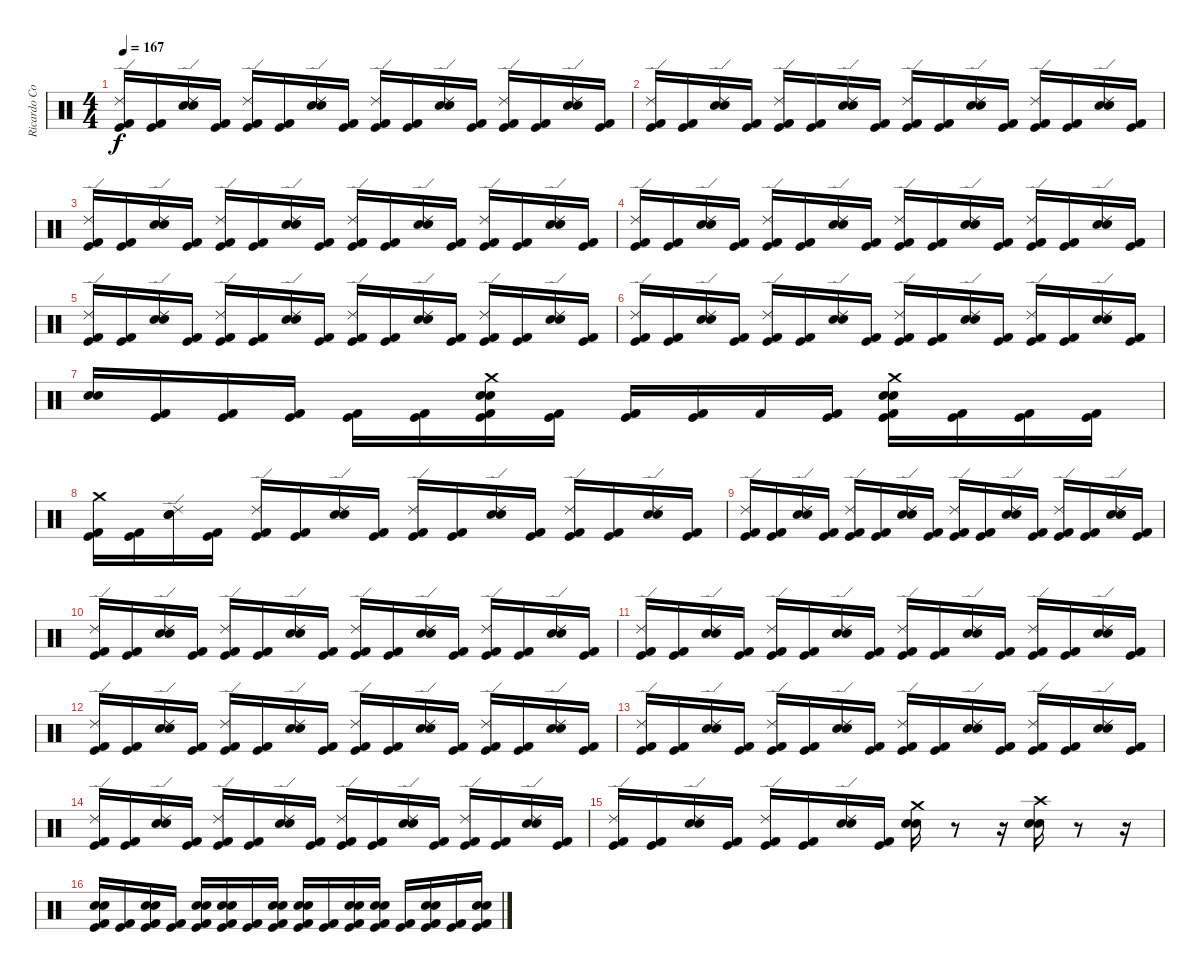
\track ("Ricardo Confessori" "Ricardo Co") {instrument percussion}
\staff {score}
\articulation defaults
\ts (4 4)
\tempo 167
\clef neutral
\ks c
("Ride (edge) 2" "Kick (hit) 2" "Kick (hit)").16{dy f} ("Kick (hit) 2" "Kick (hit)").16 ("Electric Snare (hit)" "Snare (hit) 2" "Ride (edge) 2").16 ("Kick (hit) 2" "Kick (hit)").16 ("Ride (edge) 2" "Kick (hit) 2" "Kick (hit)").16 ("Kick (hit) 2" "Kick (hit)").16 ("Electric Snare (hit)" "Snare (hit) 2" "Ride (edge) 2").16 ("Kick (hit) 2" "Kick (hit)").16 ("Ride (edge) 2" "Kick (hit) 2" "Kick (hit)").16 ("Kick (hit) 2" "Kick (hit)").16 ("Electric Snare (hit)" "Snare (hit) 2" "Ride (edge) 2").16 ("Kick (hit) 2" "Kick (hit)").16 ("Ride (edge) 2" "Kick (hit) 2" "Kick (hit)").16 ("Kick (hit) 2" "Kick (hit)").16 ("Electric Snare (hit)" "Snare (hit) 2" "Ride (edge) 2").16 ("Kick (hit) 2" "Kick (hit)").16 |
("Ride (edge) 2" "Kick (hit) 2" "Kick (hit)").16 ("Kick (hit) 2" "Kick (hit)").16 ("Electric Snare (hit)" "Snare (hit) 2" "Ride (edge) 2").16 ("Kick (hit) 2" "Kick (hit)").16 ("Ride (edge) 2" "Kick (hit) 2" "Kick (hit)").16 ("Kick (hit) 2" "Kick (hit)").16 ("Electric Snare (hit)" "Snare (hit) 2" "Ride (edge) 2").16 ("Kick (hit) 2" "Kick (hit)").16 ("Ride (edge) 2" "Kick (hit) 2" "Kick (hit)").16 ("Kick (hit) 2" "Kick (hit)").16 ("Electric Snare (hit)" "Snare (hit) 2" "Ride (edge) 2").16 ("Kick (hit) 2" "Kick (hit)").16 ("Ride (edge) 2" "Kick (hit) 2" "Kick (hit)").16 ("Kick (hit) 2" "Kick (hit)").16 ("Electric Snare (hit)" "Snare (hit) 2" "Ride (edge) 2").16 ("Kick (hit) 2" "Kick (hit)").16 |
("Ride (edge) 2" "Kick (hit) 2" "Kick (hit)").16 ("Kick (hit) 2" "Kick (hit)").16 ("Electric Snare (hit)" "Snare (hit) 2" "Ride (edge) 2").16 ("Kick (hit) 2" "Kick (hit)").16 ("Ride (edge) 2" "Kick (hit) 2" "Kick (hit)").16 ("Kick (hit) 2" "Kick (hit)").16 ("Electric Snare (hit)" "Snare (hit) 2" "Ride (edge) 2").16 ("Kick (hit) 2" "Kick (hit)").16 ("Ride (edge) 2" "Kick (hit) 2" "Kick (hit)").16 ("Kick (hit) 2" "Kick (hit)").16 ("Electric Snare (hit)" "Snare (hit) 2" "Ride (edge) 2").16 ("Kick (hit) 2" "Kick (hit)").16 ("Ride (edge) 2" "Kick (hit) 2" "Kick (hit)").16 ("Kick (hit) 2" "Kick (hit)").16 ("Electric Snare (hit)" "Snare (hit) 2" "Ride (edge) 2").16 ("Kick (hit) 2" "Kick (hit)").16 |
("Ride (edge) 2" "Kick (hit) 2" "Kick (hit)").16 ("Kick (hit) 2" "Kick (hit)").16 ("Electric Snare (hit)" "Snare (hit) 2" "Ride (edge) 2").16 ("Kick (hit) 2" "Kick (hit)").16 ("Ride (edge) 2" "Kick (hit) 2" "Kick (hit)").16 ("Kick (hit) 2" "Kick (hit)").16 ("Electric Snare (hit)" "Snare (hit) 2" "Ride (edge) 2").16 ("Kick (hit) 2" "Kick (hit)").16 ("Ride (edge) 2" "Kick (hit) 2" "Kick (hit)").16 ("Kick (hit) 2" "Kick (hit)").16 ("Electric Snare (hit)" "Snare (hit) 2" "Ride (edge) 2").16 ("Kick (hit) 2" "Kick (hit)").16 ("Ride (edge) 2" "Kick (hit) 2" "Kick (hit)").16 ("Kick (hit) 2" "Kick (hit)").16 ("Electric Snare (hit)" "Snare (hit) 2" "Ride (edge) 2").16 ("Kick (hit) 2" "Kick (hit)").16 |
("Ride (edge) 2" "Kick (hit) 2" "Kick (hit)").16 ("Kick (hit) 2" "Kick (hit)").16 ("Electric Snare (hit)" "Snare (hit) 2" "Ride (edge) 2").16 ("Kick (hit) 2" "Kick (hit)").16 ("Ride (edge) 2" "Kick (hit) 2" "Kick (hit)").16 ("Kick (hit) 2" "Kick (hit)").16 ("Electric Snare (hit)" "Snare (hit) 2" "Ride (edge) 2").16 ("Kick (hit) 2" "Kick (hit)").16 ("Ride (edge) 2" "Kick (hit) 2" "Kick (hit)").16 ("Kick (hit) 2" "Kick (hit)").16 ("Electric Snare (hit)" "Snare (hit) 2" "Ride (edge) 2").16 ("Kick (hit) 2" "Kick (hit)").16 ("Ride (edge) 2" "Kick (hit) 2" "Kick (hit)").16 ("Kick (hit) 2" "Kick (hit)").16 ("Electric Snare (hit)" "Snare (hit) 2" "Ride (edge) 2").16 ("Kick (hit) 2" "Kick (hit)").16 |
("Ride (edge) 2" "Kick (hit) 2" "Kick (hit)").16 ("Kick (hit) 2" "Kick (hit)").16 ("Electric Snare (hit)" "Snare (hit) 2" "Ride (edge) 2").16 ("Kick (hit) 2" "Kick (hit)").16 ("Ride (edge) 2" "Kick (hit) 2" "Kick (hit)").16 ("Kick (hit) 2" "Kick (hit)").16 ("Electric Snare (hit)" "Snare (hit) 2" "Ride (edge) 2").16 ("Kick (hit) 2" "Kick (hit)").16 ("Ride (edge) 2" "Kick (hit) 2" "Kick (hit)").16 ("Kick (hit) 2" "Kick (hit)").16 ("Electric Snare (hit)" "Snare (hit) 2" "Ride (edge) 2").16 ("Kick (hit) 2" "Kick (hit)").16 ("Ride (edge) 2" "Kick (hit) 2" "Kick (hit)").16 ("Kick (hit) 2" "Kick (hit)").16 ("Electric Snare (hit)" "Snare (hit) 2" "Ride (edge) 2").16 ("Kick (hit) 2" "Kick (hit)").16 |
("Electric Snare (hit)" "Snare (hit) 2").16 ("Kick (hit) 2" "Kick (hit)").16 ("Kick (hit) 2" "Kick (hit)").16 ("Kick (hit) 2" "Kick (hit)").16 ("Kick (hit) 2" "Kick (hit)").16 ("Kick (hit) 2" "Kick (hit)").16 ("Crash medium (hit)" "Snare (hit) 2" "Kick (hit)" "Kick (hit) 2" "Electric Snare (hit)").16 ("Kick (hit) 2" "Kick (hit)").16 ("Kick (hit) 2" "Kick (hit)").16 ("Kick (hit) 2" "Kick (hit)").16 "Kick (hit) 2".16 ("Kick (hit) 2" "Kick (hit)").16 ("Snare (hit) 2" "Electric Snare (hit)" "Crash medium (hit)" "Kick (hit) 2" "Kick (hit)").16 ("Kick (hit) 2" "Kick (hit)").16 ("Kick (hit) 2" "Kick (hit)").16 ("Kick (hit) 2" "Kick (hit)").16 |
("Crash medium (hit)" "Kick (hit) 2" "Kick (hit)").16 ("Kick (hit) 2" "Kick (hit)").16 ("Electric Snare (hit)" "Snare (hit) 2" "Ride (edge) 2").16 ("Kick (hit) 2" "Kick (hit)").16 ("Ride (edge) 2" "Kick (hit) 2" "Kick (hit)").16 ("Kick (hit) 2" "Kick (hit)").16 ("Electric Snare (hit)" "Snare (hit) 2" "Ride (edge) 2").16 ("Kick (hit) 2" "Kick (hit)").16 ("Ride (edge) 2" "Kick (hit) 2" "Kick (hit)").16 ("Kick (hit) 2" "Kick (hit)").16 ("Electric Snare (hit)" "Snare (hit) 2" "Ride (edge) 2").16 ("Kick (hit) 2" "Kick (hit)").16 ("Ride (edge) 2" "Kick (hit) 2" "Kick (hit)").16 ("Kick (hit) 2" "Kick (hit)").16 ("Electric Snare (hit)" "Snare (hit) 2" "Ride (edge) 2").16 ("Kick (hit) 2" "Kick (hit)").16 |
("Ride (edge) 2" "Kick (hit) 2" "Kick (hit)").16 ("Kick (hit) 2" "Kick (hit)").16 ("Electric Snare (hit)" "Snare (hit) 2" "Ride (edge) 2").16 ("Kick (hit) 2" "Kick (hit)").16 ("Ride (edge) 2" "Kick (hit) 2" "Kick (hit)").16 ("Kick (hit) 2" "Kick (hit)").16 ("Electric Snare (hit)" "Snare (hit) 2" "Ride (edge) 2").16 ("Kick (hit) 2" "Kick (hit)").16 ("Ride (edge) 2" "Kick (hit) 2" "Kick (hit)").16 ("Kick (hit) 2" "Kick (hit)").16 ("Electric Snare (hit)" "Snare (hit) 2" "Ride (edge) 2").16 ("Kick (hit) 2" "Kick (hit)").16 ("Ride (edge) 2" "Kick (hit) 2" "Kick (hit)").16 ("Kick (hit) 2" "Kick (hit)").16 ("Electric Snare (hit)" "Snare (hit) 2" "Ride (edge) 2").16 ("Kick (hit) 2" "Kick (hit)").16 |
("Ride (edge) 2" "Kick (hit) 2" "Kick (hit)").16 ("Kick (hit) 2" "Kick (hit)").16 ("Electric Snare (hit)" "Snare (hit) 2" "Ride (edge) 2").16 ("Kick (hit) 2" "Kick (hit)").16 ("Ride (edge) 2" "Kick (hit) 2" "Kick (hit)").16 ("Kick (hit) 2" "Kick (hit)").16 ("Electric Snare (hit)" "Snare (hit) 2" "Ride (edge) 2").16 ("Kick (hit) 2" "Kick (hit)").16 ("Ride (edge) 2" "Kick (hit) 2" "Kick (hit)").16 ("Kick (hit) 2" "Kick (hit)").16 ("Electric Snare (hit)" "Snare (hit) 2" "Ride (edge) 2").16 ("Kick (hit) 2" "Kick (hit)").16 ("Ride (edge) 2" "Kick (hit) 2" "Kick (hit)").16 ("Kick (hit) 2" "Kick (hit)").16 ("Electric Snare (hit)" "Snare (hit) 2" "Ride (edge) 2").16 ("Kick (hit) 2" "Kick (hit)").16 |
("Ride (edge) 2" "Kick (hit) 2" "Kick (hit)").16 ("Kick (hit) 2" "Kick (hit)").16 ("Electric Snare (hit)" "Snare (hit) 2" "Ride (edge) 2").16 ("Kick (hit) 2" "Kick (hit)").16 ("Ride (edge) 2" "Kick (hit) 2" "Kick (hit)").16 ("Kick (hit) 2" "Kick (hit)").16 ("Electric Snare (hit)" "Snare (hit) 2" "Ride (edge) 2").16 ("Kick (hit) 2" "Kick (hit)").16 ("Ride (edge) 2" "Kick (hit) 2" "Kick (hit)").16 ("Kick (hit) 2" "Kick (hit)").16 ("Electric Snare (hit)" "Snare (hit) 2" "Ride (edge) 2").16 ("Kick (hit) 2" "Kick (hit)").16 ("Ride (edge) 2" "Kick (hit) 2" "Kick (hit)").16 ("Kick (hit) 2" "Kick (hit)").16 ("Electric Snare (hit)" "Snare (hit) 2" "Ride (edge) 2").16 ("Kick (hit) 2" "Kick (hit)").16 |
("Ride (edge) 2" "Kick (hit) 2" "Kick (hit)").16 ("Kick (hit) 2" "Kick (hit)").16 ("Electric Snare (hit)" "Snare (hit) 2" "Ride (edge) 2").16 ("Kick (hit) 2" "Kick (hit)").16 ("Ride (edge) 2" "Kick (hit) 2" "Kick (hit)").16 ("Kick (hit) 2" "Kick (hit)").16 ("Electric Snare (hit)" "Snare (hit) 2" "Ride (edge) 2").16 ("Kick (hit) 2" "Kick (hit)").16 ("Ride (edge) 2" "Kick (hit) 2" "Kick (hit)").16 ("Kick (hit) 2" "Kick (hit)").16 ("Electric Snare (hit)" "Snare (hit) 2" "Ride (edge) 2").16 ("Kick (hit) 2" "Kick (hit)").16 ("Ride (edge) 2" "Kick (hit) 2" "Kick (hit)").16 ("Kick (hit) 2" "Kick (hit)").16 ("Electric Snare (hit)" "Snare (hit) 2" "Ride (edge) 2").16 ("Kick (hit) 2" "Kick (hit)").16 |
("Ride (edge) 2" "Kick (hit) 2" "Kick (hit)").16 ("Kick (hit) 2" "Kick (hit)").16 ("Electric Snare (hit)" "Snare (hit) 2" "Ride (edge) 2").16 ("Kick (hit) 2" "Kick (hit)").16 ("Ride (edge) 2" "Kick (hit) 2" "Kick (hit)").16 ("Kick (hit) 2" "Kick (hit)").16 ("Electric Snare (hit)" "Snare (hit) 2" "Ride (edge) 2").16 ("Kick (hit) 2" "Kick (hit)").16 ("Ride (edge) 2" "Kick (hit) 2" "Kick (hit)").16 ("Kick (hit) 2" "Kick (hit)").16 ("Electric Snare (hit)" "Snare (hit) 2" "Ride (edge) 2").16 ("Kick (hit) 2" "Kick (hit)").16 ("Ride (edge) 2" "Kick (hit) 2" "Kick (hit)").16 ("Kick (hit) 2" "Kick (hit)").16 ("Electric Snare (hit)" "Snare (hit) 2" "Ride (edge) 2").16 ("Kick (hit) 2" "Kick (hit)").16 |
("Ride (edge) 2" "Kick (hit) 2" "Kick (hit)").16 ("Kick (hit) 2" "Kick (hit)").16 ("Electric Snare (hit)" "Snare (hit) 2" "Ride (edge) 2").16 ("Kick (hit) 2" "Kick (hit)").16 ("Ride (edge) 2" "Kick (hit) 2" "Kick (hit)").16 ("Kick (hit) 2" "Kick (hit)").16 ("Electric Snare (hit)" "Snare (hit) 2" "Ride (edge) 2").16 ("Kick (hit) 2" "Kick (hit)").16 ("Ride (edge) 2" "Kick (hit) 2" "Kick (hit)").16 ("Kick (hit) 2" "Kick (hit)").16 ("Electric Snare (hit)" "Snare (hit) 2" "Ride (edge) 2").16 ("Kick (hit) 2" "Kick (hit)").16 ("Ride (edge) 2" "Kick (hit) 2" "Kick (hit)").16 ("Kick (hit) 2" "Kick (hit)").16 ("Electric Snare (hit)" "Snare (hit) 2" "Ride (edge) 2").16 ("Kick (hit) 2" "Kick (hit)").16 |
("Ride (edge) 2" "Kick (hit) 2" "Kick (hit)").16 ("Kick (hit) 2" "Kick (hit)").16 ("Electric Snare (hit)" "Snare (hit) 2" "Ride (edge) 2").16 ("Kick (hit) 2" "Kick (hit)").16 ("Ride (edge) 2" "Kick (hit) 2" "Kick (hit)").16 ("Kick (hit) 2" "Kick (hit)").16 ("Electric Snare (hit)" "Snare (hit) 2" "Ride (edge) 2").16 ("Kick (hit) 2" "Kick (hit)").16 ("Crash medium (hit)" "Electric Snare (hit)" "Snare (hit) 2").16 r.8 r.16 ("Crash high (hit)" "Electric Snare (hit)" "Snare (hit) 2").16 r.8 r.16 |
("Electric Snare (hit)" "Snare (hit) 2" "Kick (hit) 2" "Kick (hit)").16 ("Kick (hit) 2" "Kick (hit)").16 ("Electric Snare (hit)" "Snare (hit) 2" "Kick (hit) 2" "Kick (hit)").16 ("Kick (hit) 2" "Kick (hit)").16 ("Electric Snare (hit)" "Snare (hit) 2" "Kick (hit) 2" "Kick (hit)").16 ("Snare (hit) 2" "Electric Snare (hit)" "Kick (hit) 2" "Kick (hit)").16 ("Kick (hit) 2" "Kick (hit)").16 ("Electric Snare (hit)" "Snare (hit) 2" "Kick (hit) 2" "Kick (hit)").16 ("Electric Snare (hit)" "Snare (hit) 2" "Kick (hit) 2" "Kick (hit)").16 ("Kick (hit) 2" "Kick (hit)").16 ("Electric Snare (hit)" "Snare (hit) 2" "Kick (hit) 2" "Kick (hit)").16 ("Electric Snare (hit)" "Snare (hit) 2" "Kick (hit) 2" "Kick (hit)").16 ("Kick (hit) 2" "Kick (hit)").16 ("Electric Snare (hit)" "Snare (hit) 2" "Kick (hit) 2" "Kick (hit)").16 ("Kick (hit) 2" "Kick (hit)").16 ("Electric Snare (hit)" "Snare (hit) 2" "Kick (hit) 2" "Kick (hit)").16
